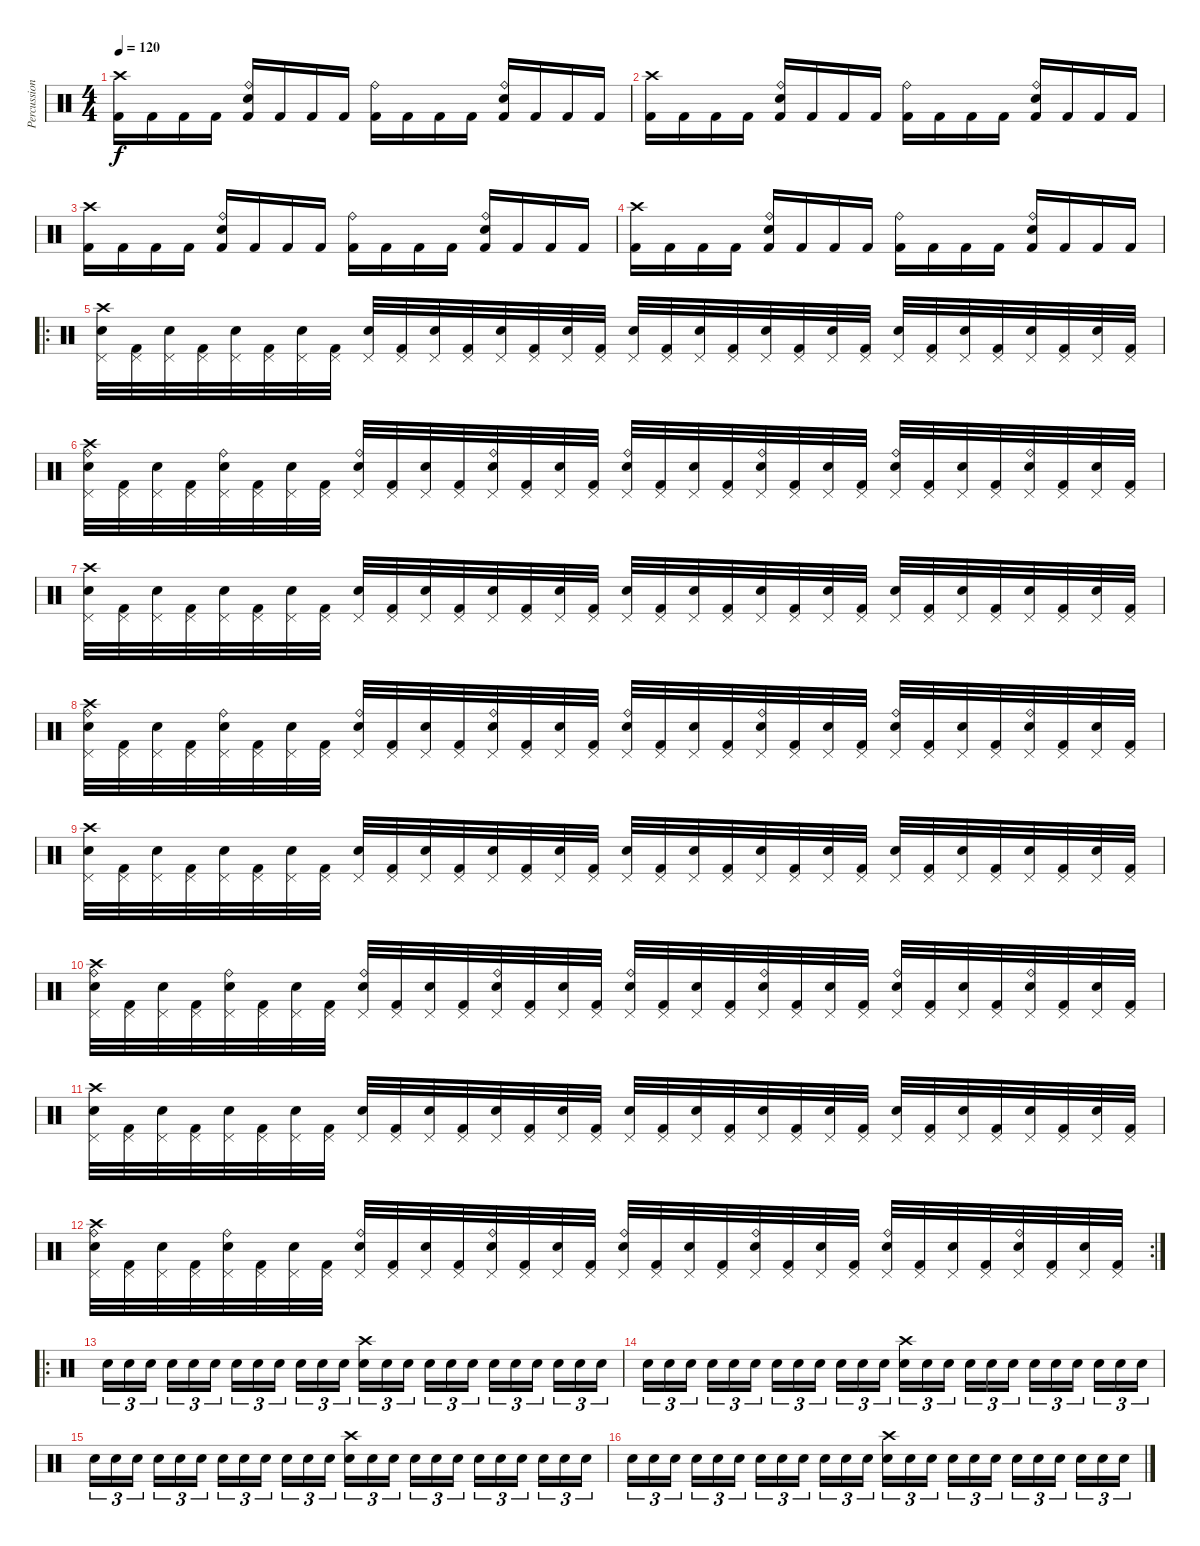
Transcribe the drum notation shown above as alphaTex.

\track ("Percussions" "Percussion") {instrument percussion}
\staff {score}
\articulation defaults
\ts (4 4)
\tempo 120
\clef neutral
\ks c
("Crash high (hit)" "Kick (hit) 2").16{dy f} "Kick (hit) 2".16 "Kick (hit) 2".16 "Kick (hit) 2".16 ("Ride (bell)" "Snare (hit) 2" "Kick (hit) 2").16 "Kick (hit) 2".16 "Kick (hit) 2".16 "Kick (hit) 2".16 ("Ride (bell)" "Kick (hit) 2").16 "Kick (hit) 2".16 "Kick (hit) 2".16 "Kick (hit) 2".16 ("Ride (bell)" "Snare (hit) 2" "Kick (hit) 2").16 "Kick (hit) 2".16 "Kick (hit) 2".16 "Kick (hit) 2".16 |
("Crash high (hit)" "Kick (hit) 2").16 "Kick (hit) 2".16 "Kick (hit) 2".16 "Kick (hit) 2".16 ("Ride (bell)" "Snare (hit) 2" "Kick (hit) 2").16 "Kick (hit) 2".16 "Kick (hit) 2".16 "Kick (hit) 2".16 ("Ride (bell)" "Kick (hit) 2").16 "Kick (hit) 2".16 "Kick (hit) 2".16 "Kick (hit) 2".16 ("Ride (bell)" "Snare (hit) 2" "Kick (hit) 2").16 "Kick (hit) 2".16 "Kick (hit) 2".16 "Kick (hit) 2".16 |
("Crash high (hit)" "Kick (hit) 2").16 "Kick (hit) 2".16 "Kick (hit) 2".16 "Kick (hit) 2".16 ("Ride (bell)" "Snare (hit) 2" "Kick (hit) 2").16 "Kick (hit) 2".16 "Kick (hit) 2".16 "Kick (hit) 2".16 ("Ride (bell)" "Kick (hit) 2").16 "Kick (hit) 2".16 "Kick (hit) 2".16 "Kick (hit) 2".16 ("Ride (bell)" "Snare (hit) 2" "Kick (hit) 2").16 "Kick (hit) 2".16 "Kick (hit) 2".16 "Kick (hit) 2".16 |
("Crash high (hit)" "Kick (hit) 2").16 "Kick (hit) 2".16 "Kick (hit) 2".16 "Kick (hit) 2".16 ("Ride (bell)" "Snare (hit) 2" "Kick (hit) 2").16 "Kick (hit) 2".16 "Kick (hit) 2".16 "Kick (hit) 2".16 ("Ride (bell)" "Kick (hit) 2").16 "Kick (hit) 2".16 "Kick (hit) 2".16 "Kick (hit) 2".16 ("Ride (bell)" "Snare (hit) 2" "Kick (hit) 2").16 "Kick (hit) 2".16 "Kick (hit) 2".16 "Kick (hit) 2".16 |
\ro
("Pedal Hi-Hat (hit)" "Crash high (hit)" "Electric Snare (hit)").32{volume 16} ("Pedal Hi-Hat (hit)" "Kick (hit) 2").32 ("Pedal Hi-Hat (hit)" "Electric Snare (hit)").32 ("Pedal Hi-Hat (hit)" "Kick (hit) 2").32 ("Pedal Hi-Hat (hit)" "Electric Snare (hit)").32 ("Pedal Hi-Hat (hit)" "Kick (hit) 2").32 ("Pedal Hi-Hat (hit)" "Electric Snare (hit)").32 ("Pedal Hi-Hat (hit)" "Kick (hit) 2").32 ("Pedal Hi-Hat (hit)" "Electric Snare (hit)").32 ("Pedal Hi-Hat (hit)" "Kick (hit) 2").32 ("Pedal Hi-Hat (hit)" "Electric Snare (hit)").32 ("Pedal Hi-Hat (hit)" "Kick (hit) 2").32 ("Pedal Hi-Hat (hit)" "Electric Snare (hit)").32 ("Pedal Hi-Hat (hit)" "Kick (hit) 2").32 ("Pedal Hi-Hat (hit)" "Electric Snare (hit)").32 ("Pedal Hi-Hat (hit)" "Kick (hit) 2").32 ("Pedal Hi-Hat (hit)" "Electric Snare (hit)").32 ("Pedal Hi-Hat (hit)" "Kick (hit) 2").32 ("Pedal Hi-Hat (hit)" "Electric Snare (hit)").32 ("Pedal Hi-Hat (hit)" "Kick (hit) 2").32 ("Pedal Hi-Hat (hit)" "Electric Snare (hit)").32 ("Pedal Hi-Hat (hit)" "Kick (hit) 2").32 ("Pedal Hi-Hat (hit)" "Electric Snare (hit)").32 ("Pedal Hi-Hat (hit)" "Kick (hit) 2").32 ("Pedal Hi-Hat (hit)" "Electric Snare (hit)").32 ("Pedal Hi-Hat (hit)" "Kick (hit) 2").32 ("Pedal Hi-Hat (hit)" "Electric Snare (hit)").32 ("Pedal Hi-Hat (hit)" "Kick (hit) 2").32 ("Pedal Hi-Hat (hit)" "Electric Snare (hit)").32 ("Pedal Hi-Hat (hit)" "Kick (hit) 2").32 ("Pedal Hi-Hat (hit)" "Electric Snare (hit)").32 ("Pedal Hi-Hat (hit)" "Kick (hit) 2").32 |
("Ride (bell)" "Pedal Hi-Hat (hit)" "Crash high (hit)" "Electric Snare (hit)").32 ("Pedal Hi-Hat (hit)" "Kick (hit) 2").32 ("Pedal Hi-Hat (hit)" "Electric Snare (hit)").32 ("Pedal Hi-Hat (hit)" "Kick (hit) 2").32 ("Ride (bell)" "Pedal Hi-Hat (hit)" "Electric Snare (hit)").32 ("Pedal Hi-Hat (hit)" "Kick (hit) 2").32 ("Pedal Hi-Hat (hit)" "Electric Snare (hit)").32 ("Pedal Hi-Hat (hit)" "Kick (hit) 2").32 ("Ride (bell)" "Pedal Hi-Hat (hit)" "Electric Snare (hit)").32 ("Pedal Hi-Hat (hit)" "Kick (hit) 2").32 ("Pedal Hi-Hat (hit)" "Electric Snare (hit)").32 ("Pedal Hi-Hat (hit)" "Kick (hit) 2").32 ("Ride (bell)" "Pedal Hi-Hat (hit)" "Electric Snare (hit)").32 ("Pedal Hi-Hat (hit)" "Kick (hit) 2").32 ("Pedal Hi-Hat (hit)" "Electric Snare (hit)").32 ("Pedal Hi-Hat (hit)" "Kick (hit) 2").32 ("Ride (bell)" "Pedal Hi-Hat (hit)" "Electric Snare (hit)").32 ("Pedal Hi-Hat (hit)" "Kick (hit) 2").32 ("Pedal Hi-Hat (hit)" "Electric Snare (hit)").32 ("Pedal Hi-Hat (hit)" "Kick (hit) 2").32 ("Ride (bell)" "Pedal Hi-Hat (hit)" "Electric Snare (hit)").32 ("Pedal Hi-Hat (hit)" "Kick (hit) 2").32 ("Pedal Hi-Hat (hit)" "Electric Snare (hit)").32 ("Pedal Hi-Hat (hit)" "Kick (hit) 2").32 ("Ride (bell)" "Pedal Hi-Hat (hit)" "Electric Snare (hit)").32 ("Pedal Hi-Hat (hit)" "Kick (hit) 2").32 ("Pedal Hi-Hat (hit)" "Electric Snare (hit)").32 ("Pedal Hi-Hat (hit)" "Kick (hit) 2").32 ("Ride (bell)" "Pedal Hi-Hat (hit)" "Electric Snare (hit)").32 ("Pedal Hi-Hat (hit)" "Kick (hit) 2").32 ("Pedal Hi-Hat (hit)" "Electric Snare (hit)").32 ("Pedal Hi-Hat (hit)" "Kick (hit) 2").32 |
("Pedal Hi-Hat (hit)" "Crash high (hit)" "Electric Snare (hit)").32 ("Pedal Hi-Hat (hit)" "Kick (hit) 2").32 ("Pedal Hi-Hat (hit)" "Electric Snare (hit)").32 ("Pedal Hi-Hat (hit)" "Kick (hit) 2").32 ("Pedal Hi-Hat (hit)" "Electric Snare (hit)").32 ("Pedal Hi-Hat (hit)" "Kick (hit) 2").32 ("Pedal Hi-Hat (hit)" "Electric Snare (hit)").32 ("Pedal Hi-Hat (hit)" "Kick (hit) 2").32 ("Pedal Hi-Hat (hit)" "Electric Snare (hit)").32 ("Pedal Hi-Hat (hit)" "Kick (hit) 2").32 ("Pedal Hi-Hat (hit)" "Electric Snare (hit)").32 ("Pedal Hi-Hat (hit)" "Kick (hit) 2").32 ("Pedal Hi-Hat (hit)" "Electric Snare (hit)").32 ("Pedal Hi-Hat (hit)" "Kick (hit) 2").32 ("Pedal Hi-Hat (hit)" "Electric Snare (hit)").32 ("Pedal Hi-Hat (hit)" "Kick (hit) 2").32 ("Pedal Hi-Hat (hit)" "Electric Snare (hit)").32 ("Pedal Hi-Hat (hit)" "Kick (hit) 2").32 ("Pedal Hi-Hat (hit)" "Electric Snare (hit)").32 ("Pedal Hi-Hat (hit)" "Kick (hit) 2").32 ("Pedal Hi-Hat (hit)" "Electric Snare (hit)").32 ("Pedal Hi-Hat (hit)" "Kick (hit) 2").32 ("Pedal Hi-Hat (hit)" "Electric Snare (hit)").32 ("Pedal Hi-Hat (hit)" "Kick (hit) 2").32 ("Pedal Hi-Hat (hit)" "Electric Snare (hit)").32 ("Pedal Hi-Hat (hit)" "Kick (hit) 2").32 ("Pedal Hi-Hat (hit)" "Electric Snare (hit)").32 ("Pedal Hi-Hat (hit)" "Kick (hit) 2").32 ("Pedal Hi-Hat (hit)" "Electric Snare (hit)").32 ("Pedal Hi-Hat (hit)" "Kick (hit) 2").32 ("Pedal Hi-Hat (hit)" "Electric Snare (hit)").32 ("Pedal Hi-Hat (hit)" "Kick (hit) 2").32 |
("Ride (bell)" "Pedal Hi-Hat (hit)" "Crash high (hit)" "Electric Snare (hit)").32 ("Pedal Hi-Hat (hit)" "Kick (hit) 2").32 ("Pedal Hi-Hat (hit)" "Electric Snare (hit)").32 ("Pedal Hi-Hat (hit)" "Kick (hit) 2").32 ("Ride (bell)" "Pedal Hi-Hat (hit)" "Electric Snare (hit)").32 ("Pedal Hi-Hat (hit)" "Kick (hit) 2").32 ("Pedal Hi-Hat (hit)" "Electric Snare (hit)").32 ("Pedal Hi-Hat (hit)" "Kick (hit) 2").32 ("Ride (bell)" "Pedal Hi-Hat (hit)" "Electric Snare (hit)").32 ("Pedal Hi-Hat (hit)" "Kick (hit) 2").32 ("Pedal Hi-Hat (hit)" "Electric Snare (hit)").32 ("Pedal Hi-Hat (hit)" "Kick (hit) 2").32 ("Ride (bell)" "Pedal Hi-Hat (hit)" "Electric Snare (hit)").32 ("Pedal Hi-Hat (hit)" "Kick (hit) 2").32 ("Pedal Hi-Hat (hit)" "Electric Snare (hit)").32 ("Pedal Hi-Hat (hit)" "Kick (hit) 2").32 ("Ride (bell)" "Pedal Hi-Hat (hit)" "Electric Snare (hit)").32 ("Pedal Hi-Hat (hit)" "Kick (hit) 2").32 ("Pedal Hi-Hat (hit)" "Electric Snare (hit)").32 ("Pedal Hi-Hat (hit)" "Kick (hit) 2").32 ("Ride (bell)" "Pedal Hi-Hat (hit)" "Electric Snare (hit)").32 ("Pedal Hi-Hat (hit)" "Kick (hit) 2").32 ("Pedal Hi-Hat (hit)" "Electric Snare (hit)").32 ("Pedal Hi-Hat (hit)" "Kick (hit) 2").32 ("Ride (bell)" "Pedal Hi-Hat (hit)" "Electric Snare (hit)").32 ("Pedal Hi-Hat (hit)" "Kick (hit) 2").32 ("Pedal Hi-Hat (hit)" "Electric Snare (hit)").32 ("Pedal Hi-Hat (hit)" "Kick (hit) 2").32 ("Ride (bell)" "Pedal Hi-Hat (hit)" "Electric Snare (hit)").32 ("Pedal Hi-Hat (hit)" "Kick (hit) 2").32 ("Pedal Hi-Hat (hit)" "Electric Snare (hit)").32 ("Pedal Hi-Hat (hit)" "Kick (hit) 2").32 |
("Pedal Hi-Hat (hit)" "Crash high (hit)" "Electric Snare (hit)").32{volume 16} ("Pedal Hi-Hat (hit)" "Kick (hit) 2").32 ("Pedal Hi-Hat (hit)" "Electric Snare (hit)").32 ("Pedal Hi-Hat (hit)" "Kick (hit) 2").32 ("Pedal Hi-Hat (hit)" "Electric Snare (hit)").32 ("Pedal Hi-Hat (hit)" "Kick (hit) 2").32 ("Pedal Hi-Hat (hit)" "Electric Snare (hit)").32 ("Pedal Hi-Hat (hit)" "Kick (hit) 2").32 ("Pedal Hi-Hat (hit)" "Electric Snare (hit)").32 ("Pedal Hi-Hat (hit)" "Kick (hit) 2").32 ("Pedal Hi-Hat (hit)" "Electric Snare (hit)").32 ("Pedal Hi-Hat (hit)" "Kick (hit) 2").32 ("Pedal Hi-Hat (hit)" "Electric Snare (hit)").32 ("Pedal Hi-Hat (hit)" "Kick (hit) 2").32 ("Pedal Hi-Hat (hit)" "Electric Snare (hit)").32 ("Pedal Hi-Hat (hit)" "Kick (hit) 2").32 ("Pedal Hi-Hat (hit)" "Electric Snare (hit)").32 ("Pedal Hi-Hat (hit)" "Kick (hit) 2").32 ("Pedal Hi-Hat (hit)" "Electric Snare (hit)").32 ("Pedal Hi-Hat (hit)" "Kick (hit) 2").32 ("Pedal Hi-Hat (hit)" "Electric Snare (hit)").32 ("Pedal Hi-Hat (hit)" "Kick (hit) 2").32 ("Pedal Hi-Hat (hit)" "Electric Snare (hit)").32 ("Pedal Hi-Hat (hit)" "Kick (hit) 2").32 ("Pedal Hi-Hat (hit)" "Electric Snare (hit)").32 ("Pedal Hi-Hat (hit)" "Kick (hit) 2").32 ("Pedal Hi-Hat (hit)" "Electric Snare (hit)").32 ("Pedal Hi-Hat (hit)" "Kick (hit) 2").32 ("Pedal Hi-Hat (hit)" "Electric Snare (hit)").32 ("Pedal Hi-Hat (hit)" "Kick (hit) 2").32 ("Pedal Hi-Hat (hit)" "Electric Snare (hit)").32 ("Pedal Hi-Hat (hit)" "Kick (hit) 2").32 |
("Ride (bell)" "Pedal Hi-Hat (hit)" "Crash high (hit)" "Electric Snare (hit)").32 ("Pedal Hi-Hat (hit)" "Kick (hit) 2").32 ("Pedal Hi-Hat (hit)" "Electric Snare (hit)").32 ("Pedal Hi-Hat (hit)" "Kick (hit) 2").32 ("Ride (bell)" "Pedal Hi-Hat (hit)" "Electric Snare (hit)").32 ("Pedal Hi-Hat (hit)" "Kick (hit) 2").32 ("Pedal Hi-Hat (hit)" "Electric Snare (hit)").32 ("Pedal Hi-Hat (hit)" "Kick (hit) 2").32 ("Ride (bell)" "Pedal Hi-Hat (hit)" "Electric Snare (hit)").32 ("Pedal Hi-Hat (hit)" "Kick (hit) 2").32 ("Pedal Hi-Hat (hit)" "Electric Snare (hit)").32 ("Pedal Hi-Hat (hit)" "Kick (hit) 2").32 ("Ride (bell)" "Pedal Hi-Hat (hit)" "Electric Snare (hit)").32 ("Pedal Hi-Hat (hit)" "Kick (hit) 2").32 ("Pedal Hi-Hat (hit)" "Electric Snare (hit)").32 ("Pedal Hi-Hat (hit)" "Kick (hit) 2").32 ("Ride (bell)" "Pedal Hi-Hat (hit)" "Electric Snare (hit)").32 ("Pedal Hi-Hat (hit)" "Kick (hit) 2").32 ("Pedal Hi-Hat (hit)" "Electric Snare (hit)").32 ("Pedal Hi-Hat (hit)" "Kick (hit) 2").32 ("Ride (bell)" "Pedal Hi-Hat (hit)" "Electric Snare (hit)").32 ("Pedal Hi-Hat (hit)" "Kick (hit) 2").32 ("Pedal Hi-Hat (hit)" "Electric Snare (hit)").32 ("Pedal Hi-Hat (hit)" "Kick (hit) 2").32 ("Ride (bell)" "Pedal Hi-Hat (hit)" "Electric Snare (hit)").32 ("Pedal Hi-Hat (hit)" "Kick (hit) 2").32 ("Pedal Hi-Hat (hit)" "Electric Snare (hit)").32 ("Pedal Hi-Hat (hit)" "Kick (hit) 2").32 ("Ride (bell)" "Pedal Hi-Hat (hit)" "Electric Snare (hit)").32 ("Pedal Hi-Hat (hit)" "Kick (hit) 2").32 ("Pedal Hi-Hat (hit)" "Electric Snare (hit)").32 ("Pedal Hi-Hat (hit)" "Kick (hit) 2").32 |
("Pedal Hi-Hat (hit)" "Crash high (hit)" "Electric Snare (hit)").32 ("Pedal Hi-Hat (hit)" "Kick (hit) 2").32 ("Pedal Hi-Hat (hit)" "Electric Snare (hit)").32 ("Pedal Hi-Hat (hit)" "Kick (hit) 2").32 ("Pedal Hi-Hat (hit)" "Electric Snare (hit)").32 ("Pedal Hi-Hat (hit)" "Kick (hit) 2").32 ("Pedal Hi-Hat (hit)" "Electric Snare (hit)").32 ("Pedal Hi-Hat (hit)" "Kick (hit) 2").32 ("Pedal Hi-Hat (hit)" "Electric Snare (hit)").32 ("Pedal Hi-Hat (hit)" "Kick (hit) 2").32 ("Pedal Hi-Hat (hit)" "Electric Snare (hit)").32 ("Pedal Hi-Hat (hit)" "Kick (hit) 2").32 ("Pedal Hi-Hat (hit)" "Electric Snare (hit)").32 ("Pedal Hi-Hat (hit)" "Kick (hit) 2").32 ("Pedal Hi-Hat (hit)" "Electric Snare (hit)").32 ("Pedal Hi-Hat (hit)" "Kick (hit) 2").32 ("Pedal Hi-Hat (hit)" "Electric Snare (hit)").32 ("Pedal Hi-Hat (hit)" "Kick (hit) 2").32 ("Pedal Hi-Hat (hit)" "Electric Snare (hit)").32 ("Pedal Hi-Hat (hit)" "Kick (hit) 2").32 ("Pedal Hi-Hat (hit)" "Electric Snare (hit)").32 ("Pedal Hi-Hat (hit)" "Kick (hit) 2").32 ("Pedal Hi-Hat (hit)" "Electric Snare (hit)").32 ("Pedal Hi-Hat (hit)" "Kick (hit) 2").32 ("Pedal Hi-Hat (hit)" "Electric Snare (hit)").32 ("Pedal Hi-Hat (hit)" "Kick (hit) 2").32 ("Pedal Hi-Hat (hit)" "Electric Snare (hit)").32 ("Pedal Hi-Hat (hit)" "Kick (hit) 2").32 ("Pedal Hi-Hat (hit)" "Electric Snare (hit)").32 ("Pedal Hi-Hat (hit)" "Kick (hit) 2").32 ("Pedal Hi-Hat (hit)" "Electric Snare (hit)").32 ("Pedal Hi-Hat (hit)" "Kick (hit) 2").32 |
\rc 2
("Ride (bell)" "Pedal Hi-Hat (hit)" "Crash high (hit)" "Electric Snare (hit)").32 ("Pedal Hi-Hat (hit)" "Kick (hit) 2").32 ("Pedal Hi-Hat (hit)" "Electric Snare (hit)").32 ("Pedal Hi-Hat (hit)" "Kick (hit) 2").32 ("Ride (bell)" "Pedal Hi-Hat (hit)" "Electric Snare (hit)").32 ("Pedal Hi-Hat (hit)" "Kick (hit) 2").32 ("Pedal Hi-Hat (hit)" "Electric Snare (hit)").32 ("Pedal Hi-Hat (hit)" "Kick (hit) 2").32 ("Ride (bell)" "Pedal Hi-Hat (hit)" "Electric Snare (hit)").32 ("Pedal Hi-Hat (hit)" "Kick (hit) 2").32 ("Pedal Hi-Hat (hit)" "Electric Snare (hit)").32 ("Pedal Hi-Hat (hit)" "Kick (hit) 2").32 ("Ride (bell)" "Pedal Hi-Hat (hit)" "Electric Snare (hit)").32 ("Pedal Hi-Hat (hit)" "Kick (hit) 2").32 ("Pedal Hi-Hat (hit)" "Electric Snare (hit)").32 ("Pedal Hi-Hat (hit)" "Kick (hit) 2").32 ("Ride (bell)" "Pedal Hi-Hat (hit)" "Electric Snare (hit)").32 ("Pedal Hi-Hat (hit)" "Kick (hit) 2").32 ("Pedal Hi-Hat (hit)" "Electric Snare (hit)").32 ("Pedal Hi-Hat (hit)" "Kick (hit) 2").32 ("Ride (bell)" "Pedal Hi-Hat (hit)" "Electric Snare (hit)").32 ("Pedal Hi-Hat (hit)" "Kick (hit) 2").32 ("Pedal Hi-Hat (hit)" "Electric Snare (hit)").32 ("Pedal Hi-Hat (hit)" "Kick (hit) 2").32 ("Ride (bell)" "Pedal Hi-Hat (hit)" "Electric Snare (hit)").32 ("Pedal Hi-Hat (hit)" "Kick (hit) 2").32 ("Pedal Hi-Hat (hit)" "Electric Snare (hit)").32 ("Pedal Hi-Hat (hit)" "Kick (hit) 2").32 ("Ride (bell)" "Pedal Hi-Hat (hit)" "Electric Snare (hit)").32 ("Pedal Hi-Hat (hit)" "Kick (hit) 2").32 ("Pedal Hi-Hat (hit)" "Electric Snare (hit)").32 ("Pedal Hi-Hat (hit)" "Kick (hit) 2").32 |
\ro "Electric Snare (hit)".16{tu (3 2)} "Snare (hit) 2".16{tu (3 2)} "Electric Snare (hit)".16{tu (3 2) beam splitsecondary} "Snare (hit) 2".16{tu (3 2)} "Electric Snare (hit)".16{tu (3 2)} "Snare (hit) 2".16{tu (3 2)} "Electric Snare (hit)".16{tu (3 2)} "Snare (hit) 2".16{tu (3 2)} "Electric Snare (hit)".16{tu (3 2) beam splitsecondary} "Snare (hit) 2".16{tu (3 2)} "Electric Snare (hit)".16{tu (3 2)} "Snare (hit) 2".16{tu (3 2)}
("Crash high (hit)" "Electric Snare (hit)").16{tu (3 2)} "Snare (hit) 2".16{tu (3 2)} "Electric Snare (hit)".16{tu (3 2) beam splitsecondary} "Snare (hit) 2".16{tu (3 2)} "Electric Snare (hit)".16{tu (3 2)} "Snare (hit) 2".16{tu (3 2)} "Electric Snare (hit)".16{tu (3 2)} "Snare (hit) 2".16{tu (3 2)} "Electric Snare (hit)".16{tu (3 2) beam splitsecondary} "Snare (hit) 2".16{tu (3 2)} "Electric Snare (hit)".16{tu (3 2)} "Snare (hit) 2".16{tu (3 2)} |
"Electric Snare (hit)".16{tu (3 2)} "Snare (hit) 2".16{tu (3 2)} "Electric Snare (hit)".16{tu (3 2) beam splitsecondary} "Snare (hit) 2".16{tu (3 2)} "Electric Snare (hit)".16{tu (3 2)} "Snare (hit) 2".16{tu (3 2)} "Electric Snare (hit)".16{tu (3 2)} "Snare (hit) 2".16{tu (3 2)} "Electric Snare (hit)".16{tu (3 2) beam splitsecondary} "Snare (hit) 2".16{tu (3 2)} "Electric Snare (hit)".16{tu (3 2)} "Snare (hit) 2".16{tu (3 2)} ("Crash high (hit)" "Electric Snare (hit)").16{tu (3 2)} "Snare (hit) 2".16{tu (3 2)} "Electric Snare (hit)".16{tu (3 2) beam splitsecondary} "Snare (hit) 2".16{tu (3 2)} "Electric Snare (hit)".16{tu (3 2)} "Snare (hit) 2".16{tu (3 2)} "Electric Snare (hit)".16{tu (3 2)} "Snare (hit) 2".16{tu (3 2)} "Electric Snare (hit)".16{tu (3 2) beam splitsecondary} "Snare (hit) 2".16{tu (3 2)} "Electric Snare (hit)".16{tu (3 2)} "Snare (hit) 2".16{tu (3 2)} |
"Electric Snare (hit)".16{tu (3 2)} "Snare (hit) 2".16{tu (3 2)} "Electric Snare (hit)".16{tu (3 2) beam splitsecondary} "Snare (hit) 2".16{tu (3 2)} "Electric Snare (hit)".16{tu (3 2)} "Snare (hit) 2".16{tu (3 2)} "Electric Snare (hit)".16{tu (3 2)} "Snare (hit) 2".16{tu (3 2)} "Electric Snare (hit)".16{tu (3 2) beam splitsecondary} "Snare (hit) 2".16{tu (3 2)} "Electric Snare (hit)".16{tu (3 2)} "Snare (hit) 2".16{tu (3 2)} ("Crash high (hit)" "Electric Snare (hit)").16{tu (3 2)} "Snare (hit) 2".16{tu (3 2)} "Electric Snare (hit)".16{tu (3 2) beam splitsecondary} "Snare (hit) 2".16{tu (3 2)} "Electric Snare (hit)".16{tu (3 2)} "Snare (hit) 2".16{tu (3 2)} "Electric Snare (hit)".16{tu (3 2)} "Snare (hit) 2".16{tu (3 2)} "Electric Snare (hit)".16{tu (3 2) beam splitsecondary} "Snare (hit) 2".16{tu (3 2)} "Electric Snare (hit)".16{tu (3 2)} "Snare (hit) 2".16{tu (3 2)} |
"Electric Snare (hit)".16{tu (3 2)} "Snare (hit) 2".16{tu (3 2)} "Electric Snare (hit)".16{tu (3 2) beam splitsecondary} "Snare (hit) 2".16{tu (3 2)} "Electric Snare (hit)".16{tu (3 2)} "Snare (hit) 2".16{tu (3 2)} "Electric Snare (hit)".16{tu (3 2)} "Snare (hit) 2".16{tu (3 2)} "Electric Snare (hit)".16{tu (3 2) beam splitsecondary} "Snare (hit) 2".16{tu (3 2)} "Electric Snare (hit)".16{tu (3 2)} "Snare (hit) 2".16{tu (3 2)} ("Crash high (hit)" "Electric Snare (hit)").16{tu (3 2)} "Snare (hit) 2".16{tu (3 2)} "Electric Snare (hit)".16{tu (3 2) beam splitsecondary} "Snare (hit) 2".16{tu (3 2)} "Electric Snare (hit)".16{tu (3 2)} "Snare (hit) 2".16{tu (3 2)} "Electric Snare (hit)".16{tu (3 2)} "Snare (hit) 2".16{tu (3 2)} "Electric Snare (hit)".16{tu (3 2) beam splitsecondary} "Snare (hit) 2".16{tu (3 2)} "Electric Snare (hit)".16{tu (3 2)} "Snare (hit) 2".16{tu (3 2)}
